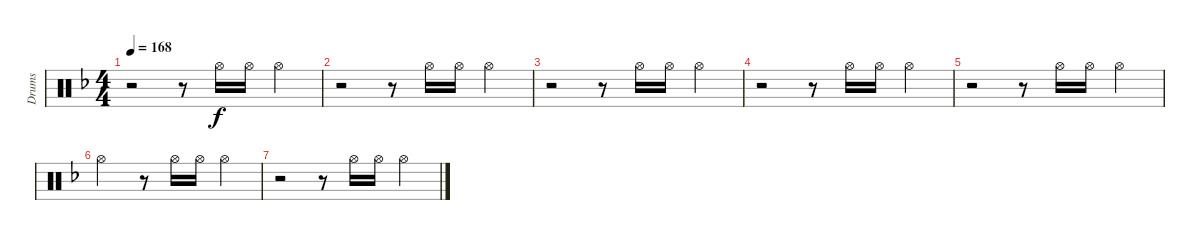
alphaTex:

\track ("Drums" "Drums") {instrument percussion}
\staff {score}
\articulation defaults
\ts (4 4)
\tempo 168
\clef neutral
\ks f
r.2{dy f} r.8 "Hi-Hat (open)".16 "Hi-Hat (open)".16 "Hi-Hat (open)".4 |
r.2 r.8 "Hi-Hat (open)".16 "Hi-Hat (open)".16 "Hi-Hat (open)".4 |
r.2 r.8 "Hi-Hat (open)".16 "Hi-Hat (open)".16 "Hi-Hat (open)".4 |
r.2 r.8 "Hi-Hat (open)".16 "Hi-Hat (open)".16 "Hi-Hat (open)".4 |
r.2 r.8 "Hi-Hat (open)".16 "Hi-Hat (open)".16 "Hi-Hat (open)".4 |
"Hi-Hat (open)".2 r.8 "Hi-Hat (open)".16 "Hi-Hat (open)".16 "Hi-Hat (open)".4 |
r.2 r.8 "Hi-Hat (open)".16 "Hi-Hat (open)".16 "Hi-Hat (open)".4
